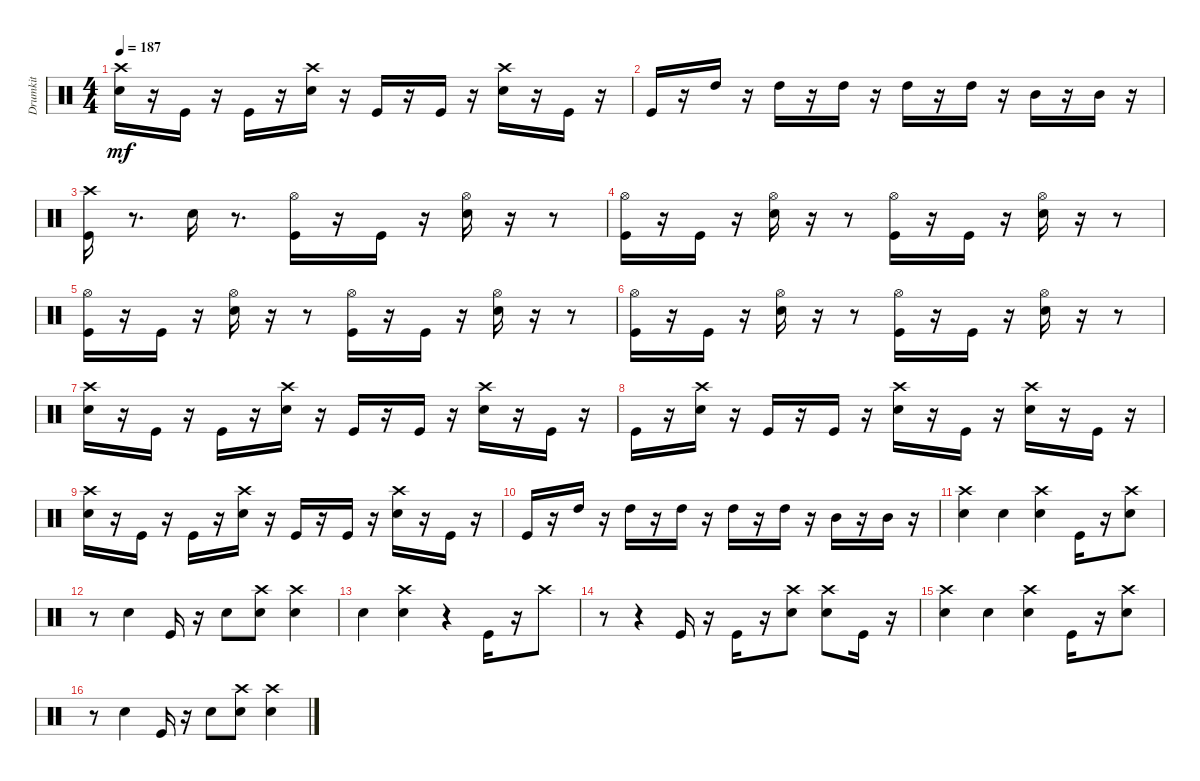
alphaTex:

\track ("Drumkit" "Drumkit") {instrument percussion}
\staff {score}
\articulation defaults
\ts (4 4)
\tempo 187
\clef neutral
\ks c
("Snare (hit) 2" "Crash high (hit)").16{dy mf} r.16 "Kick (hit)".16 r.16 "Kick (hit)".16 r.16 ("Snare (hit) 2" "Crash high (hit)").16 r.16 "Kick (hit)".16 r.16 "Kick (hit)".16 r.16 ("Snare (hit) 2" "Crash high (hit)").16 r.16 "Kick (hit)".16 r.16 |
"Kick (hit)".16 r.16 "High Tom (hit)".16 r.16 "High Tom (hit)".16 r.16 "High Tom (hit)".16 r.16 "High Tom (hit)".16 r.16 "High Tom (hit)".16 r.16 "Mid Tom (hit)".16 r.16 "Mid Tom (hit)".16 r.16 |
("Kick (hit)" "Crash high (hit)").16 r.8{d} "Snare (hit) 2".16 r.8{d} ("Kick (hit)" "Hi-Hat (open)").16 r.16 "Kick (hit)".16 r.16 ("Snare (hit) 2" "Hi-Hat (open)").16 r.16 r.8 |
("Kick (hit)" "Hi-Hat (open)").16 r.16 "Kick (hit)".16 r.16 ("Snare (hit) 2" "Hi-Hat (open)").16 r.16 r.8 ("Kick (hit)" "Hi-Hat (open)").16 r.16 "Kick (hit)".16 r.16 ("Snare (hit) 2" "Hi-Hat (open)").16 r.16 r.8 |
("Kick (hit)" "Hi-Hat (open)").16 r.16 "Kick (hit)".16 r.16 ("Snare (hit) 2" "Hi-Hat (open)").16 r.16 r.8 ("Kick (hit)" "Hi-Hat (open)").16 r.16 "Kick (hit)".16 r.16 ("Snare (hit) 2" "Hi-Hat (open)").16 r.16 r.8 |
("Kick (hit)" "Hi-Hat (open)").16 r.16 "Kick (hit)".16 r.16 ("Snare (hit) 2" "Hi-Hat (open)").16 r.16 r.8 ("Kick (hit)" "Hi-Hat (open)").16 r.16 "Kick (hit)".16 r.16 ("Snare (hit) 2" "Hi-Hat (open)").16 r.16 r.8 |
("Snare (hit) 2" "Crash high (hit)").16 r.16 "Kick (hit)".16 r.16 "Kick (hit)".16 r.16 ("Snare (hit) 2" "Crash high (hit)").16 r.16 "Kick (hit)".16 r.16 "Kick (hit)".16 r.16 ("Snare (hit) 2" "Crash high (hit)").16 r.16 "Kick (hit)".16 r.16 |
"Kick (hit)".16 r.16 ("Snare (hit) 2" "Crash high (hit)").16 r.16 "Kick (hit)".16 r.16 "Kick (hit)".16 r.16 ("Snare (hit) 2" "Crash high (hit)").16 r.16 "Kick (hit)".16 r.16 ("Snare (hit) 2" "Crash high (hit)").16 r.16 "Kick (hit)".16 r.16 |
("Snare (hit) 2" "Crash high (hit)").16 r.16 "Kick (hit)".16 r.16 "Kick (hit)".16 r.16 ("Snare (hit) 2" "Crash high (hit)").16 r.16 "Kick (hit)".16 r.16 "Kick (hit)".16 r.16 ("Snare (hit) 2" "Crash high (hit)").16 r.16 "Kick (hit)".16 r.16 |
"Kick (hit)".16 r.16 "High Tom (hit)".16 r.16 "High Tom (hit)".16 r.16 "High Tom (hit)".16 r.16 "High Tom (hit)".16 r.16 "High Tom (hit)".16 r.16 "Mid Tom (hit)".16 r.16 "Mid Tom (hit)".16 r.16 |
("Crash high (hit)" "Snare (hit) 2").4 "Snare (hit) 2".4 ("Crash high (hit)" "Snare (hit) 2").4 "Kick (hit)".16 r.16 ("Crash high (hit)" "Snare (hit) 2").8 |
r.8 "Snare (hit) 2".4 "Kick (hit)".16 r.16 "Snare (hit) 2".8 ("Crash high (hit)" "Snare (hit) 2").8 ("Crash high (hit)" "Snare (hit) 2").4 |
"Snare (hit) 2".4 ("Crash high (hit)" "Snare (hit) 2").4 r.4 "Kick (hit)".16 r.16 "Crash high (hit)".8 |
r.8 r.4 "Kick (hit)".16 r.16 "Kick (hit)".16 r.16 ("Crash high (hit)" "Snare (hit) 2").8 ("Crash high (hit)" "Snare (hit) 2").8 "Kick (hit)".16 r.16 |
("Crash high (hit)" "Snare (hit) 2").4 "Snare (hit) 2".4 ("Crash high (hit)" "Snare (hit) 2").4 "Kick (hit)".16 r.16 ("Crash high (hit)" "Snare (hit) 2").8 |
r.8 "Snare (hit) 2".4 "Kick (hit)".16 r.16 "Snare (hit) 2".8 ("Crash high (hit)" "Snare (hit) 2").8 ("Crash high (hit)" "Snare (hit) 2").4
